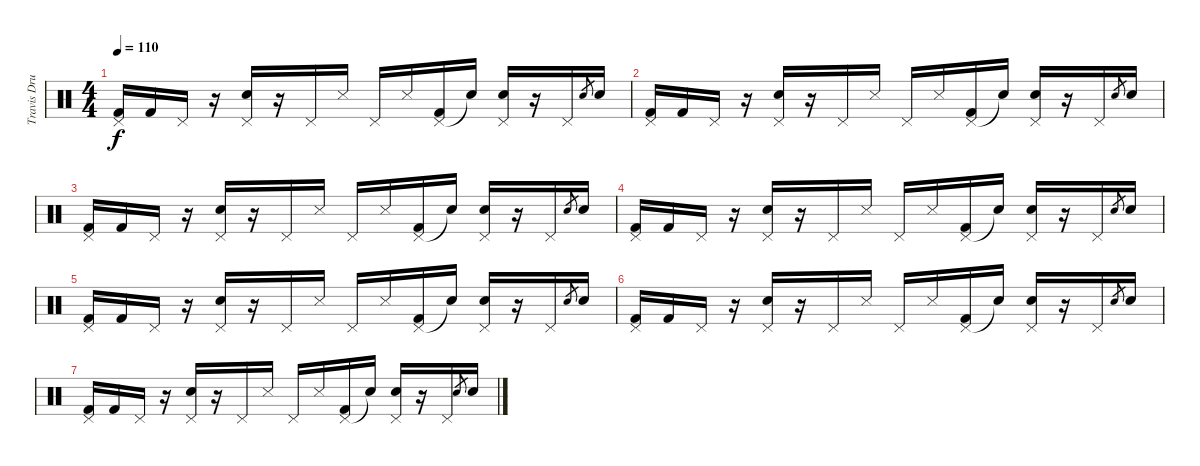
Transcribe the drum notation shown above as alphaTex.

\track ("Travis Drums" "Travis Dru") {instrument percussion}
\staff {score}
\articulation defaults
\ts (4 4)
\tempo 110
\clef neutral
\ks c
("Pedal Hi-Hat (hit)" "Kick (hit) 2").16{dy f} "Kick (hit) 2".16 "Pedal Hi-Hat (hit)".16 r.16 ("Pedal Hi-Hat (hit)" "Electric Snare (hit)").16 r.16 "Pedal Hi-Hat (hit)".16 "Metronome (hit)".16 "Pedal Hi-Hat (hit)".16 "Metronome (hit)".16 ("Pedal Hi-Hat (hit)" "Kick (hit) 2").16 "Snare (hit)"{t}.16 ("Pedal Hi-Hat (hit)" "Electric Snare (hit)").16 r.16 "Pedal Hi-Hat (hit)".16 "Electric Snare (hit)".8{gr} "Electric Snare (hit)".16 |
("Pedal Hi-Hat (hit)" "Kick (hit) 2").16 "Kick (hit) 2".16 "Pedal Hi-Hat (hit)".16 r.16 ("Pedal Hi-Hat (hit)" "Electric Snare (hit)").16 r.16 "Pedal Hi-Hat (hit)".16 "Metronome (hit)".16 "Pedal Hi-Hat (hit)".16 "Metronome (hit)".16 ("Pedal Hi-Hat (hit)" "Kick (hit) 2").16 "Snare (hit)"{t}.16 ("Pedal Hi-Hat (hit)" "Electric Snare (hit)").16 r.16 "Pedal Hi-Hat (hit)".16 "Electric Snare (hit)".8{gr} "Electric Snare (hit)".16 |
("Pedal Hi-Hat (hit)" "Kick (hit) 2").16 "Kick (hit) 2".16 "Pedal Hi-Hat (hit)".16 r.16 ("Pedal Hi-Hat (hit)" "Electric Snare (hit)").16 r.16 "Pedal Hi-Hat (hit)".16 "Metronome (hit)".16 "Pedal Hi-Hat (hit)".16 "Metronome (hit)".16 ("Pedal Hi-Hat (hit)" "Kick (hit) 2").16 "Snare (hit)"{t}.16 ("Pedal Hi-Hat (hit)" "Electric Snare (hit)").16 r.16 "Pedal Hi-Hat (hit)".16 "Electric Snare (hit)".8{gr} "Electric Snare (hit)".16 |
("Pedal Hi-Hat (hit)" "Kick (hit) 2").16 "Kick (hit) 2".16 "Pedal Hi-Hat (hit)".16 r.16 ("Pedal Hi-Hat (hit)" "Electric Snare (hit)").16 r.16 "Pedal Hi-Hat (hit)".16 "Metronome (hit)".16 "Pedal Hi-Hat (hit)".16 "Metronome (hit)".16 ("Pedal Hi-Hat (hit)" "Kick (hit) 2").16 "Snare (hit)"{t}.16 ("Pedal Hi-Hat (hit)" "Electric Snare (hit)").16 r.16 "Pedal Hi-Hat (hit)".16 "Electric Snare (hit)".8{gr} "Electric Snare (hit)".16 |
("Pedal Hi-Hat (hit)" "Kick (hit) 2").16 "Kick (hit) 2".16 "Pedal Hi-Hat (hit)".16 r.16 ("Pedal Hi-Hat (hit)" "Electric Snare (hit)").16 r.16 "Pedal Hi-Hat (hit)".16 "Metronome (hit)".16 "Pedal Hi-Hat (hit)".16 "Metronome (hit)".16 ("Pedal Hi-Hat (hit)" "Kick (hit) 2").16 "Snare (hit)"{t}.16 ("Pedal Hi-Hat (hit)" "Electric Snare (hit)").16 r.16 "Pedal Hi-Hat (hit)".16 "Electric Snare (hit)".8{gr} "Electric Snare (hit)".16 |
("Pedal Hi-Hat (hit)" "Kick (hit) 2").16 "Kick (hit) 2".16 "Pedal Hi-Hat (hit)".16 r.16 ("Pedal Hi-Hat (hit)" "Electric Snare (hit)").16 r.16 "Pedal Hi-Hat (hit)".16 "Metronome (hit)".16 "Pedal Hi-Hat (hit)".16 "Metronome (hit)".16 ("Pedal Hi-Hat (hit)" "Kick (hit) 2").16 "Snare (hit)"{t}.16 ("Pedal Hi-Hat (hit)" "Electric Snare (hit)").16 r.16 "Pedal Hi-Hat (hit)".16 "Electric Snare (hit)".8{gr} "Electric Snare (hit)".16 |
("Pedal Hi-Hat (hit)" "Kick (hit) 2").16 "Kick (hit) 2".16 "Pedal Hi-Hat (hit)".16 r.16 ("Pedal Hi-Hat (hit)" "Electric Snare (hit)").16 r.16 "Pedal Hi-Hat (hit)".16 "Metronome (hit)".16 "Pedal Hi-Hat (hit)".16 "Metronome (hit)".16 ("Pedal Hi-Hat (hit)" "Kick (hit) 2").16 "Snare (hit)"{t}.16 ("Pedal Hi-Hat (hit)" "Electric Snare (hit)").16 r.16 "Pedal Hi-Hat (hit)".16 "Electric Snare (hit)".8{gr} "Electric Snare (hit)".16
